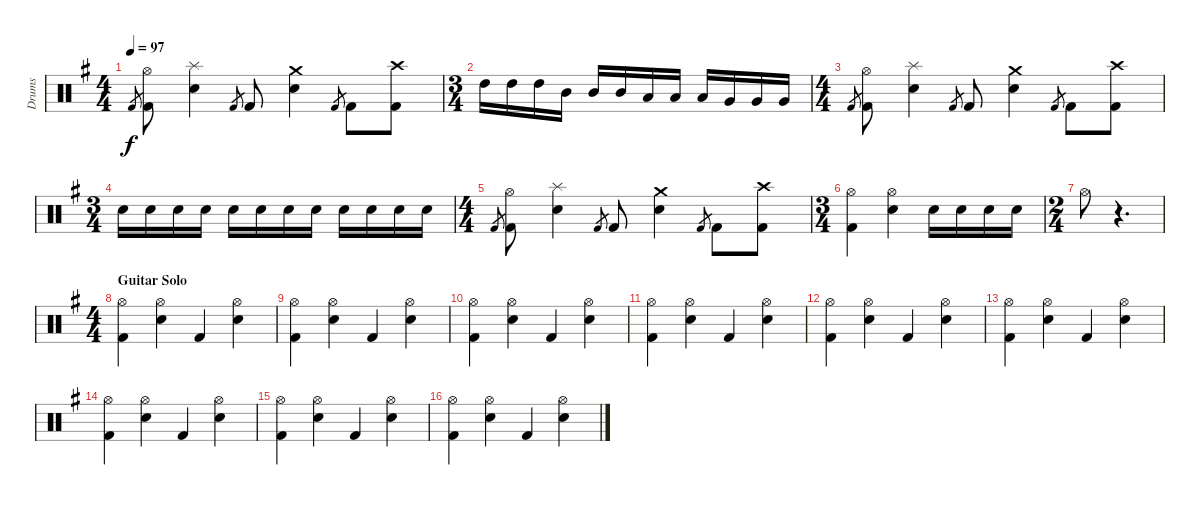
\track ("Drums" "Drums") {instrument percussion}
\staff {score}
\articulation defaults
\ts (4 4)
\tempo 97
\clef neutral
\ks g "Kick (hit) 2".8{gr dy f}
("Hi-Hat (open)" "Kick (hit) 2").8 ("Splash (hit)" "Snare (hit) 2").4 "Kick (hit) 2".8{gr} "Kick (hit) 2".8 ("Crash medium (hit)" "Snare (hit) 2").4 "Kick (hit) 2".8{gr} "Kick (hit) 2".8 ("Crash high (hit)" "Kick (hit) 2").8 |
\ts (3 4)
"High Tom (hit)".16 "High Tom (hit)".16 "High Tom (hit)".16 "Mid Tom (hit)".16 "Mid Tom (hit)".16 "Mid Tom (hit)".16 "Low Tom (hit)".16 "Low Tom (hit)".16 "Low Tom (hit)".16 "Very Low Tom (hit)".16 "Very Low Tom (hit)".16 "Very Low Tom (hit)".16 |
\ts (4 4)
"Kick (hit) 2".8{gr} ("Hi-Hat (open)" "Kick (hit) 2").8 ("Splash (hit)" "Snare (hit) 2").4 "Kick (hit) 2".8{gr} "Kick (hit) 2".8 ("Crash medium (hit)" "Snare (hit) 2").4 "Kick (hit) 2".8{gr} "Kick (hit) 2".8 ("Crash high (hit)" "Kick (hit) 2").8 |
\ts (3 4)
"Snare (hit) 2".16 "Snare (hit) 2".16 "Snare (hit) 2".16 "Snare (hit) 2".16 "Snare (hit) 2".16 "Snare (hit) 2".16 "Snare (hit) 2".16 "Snare (hit) 2".16 "Snare (hit) 2".16 "Snare (hit) 2".16 "Snare (hit) 2".16 "Snare (hit) 2".16 |
\ts (4 4)
"Kick (hit) 2".8{gr} ("Hi-Hat (open)" "Kick (hit) 2").8 ("Splash (hit)" "Snare (hit) 2").4 "Kick (hit) 2".8{gr} "Kick (hit) 2".8 ("Crash medium (hit)" "Snare (hit) 2").4 "Kick (hit) 2".8{gr} "Kick (hit) 2".8 ("Crash high (hit)" "Kick (hit) 2").8 |
\ts (3 4)
("Hi-Hat (open)" "Kick (hit) 2").4 ("Hi-Hat (open)" "Snare (hit) 2").4 "Snare (hit) 2".16 "Snare (hit) 2".16 "Snare (hit) 2".16 "Snare (hit) 2".16 |
\ts (2 4)
"Hi-Hat (open)".8 r.4{d} |
\ts (4 4)
\section ("" "Guitar Solo")
("Hi-Hat (open)" "Kick (hit) 2").4 ("Hi-Hat (open)" "Snare (hit) 2").4 "Kick (hit) 2".4 ("Hi-Hat (open)" "Snare (hit) 2").4 |
("Hi-Hat (open)" "Kick (hit) 2").4 ("Hi-Hat (open)" "Snare (hit) 2").4 "Kick (hit) 2".4 ("Hi-Hat (open)" "Snare (hit) 2").4 |
("Hi-Hat (open)" "Kick (hit) 2").4 ("Hi-Hat (open)" "Snare (hit) 2").4 "Kick (hit) 2".4 ("Hi-Hat (open)" "Snare (hit) 2").4 |
("Hi-Hat (open)" "Kick (hit) 2").4 ("Hi-Hat (open)" "Snare (hit) 2").4 "Kick (hit) 2".4 ("Hi-Hat (open)" "Snare (hit) 2").4 |
("Hi-Hat (open)" "Kick (hit) 2").4 ("Hi-Hat (open)" "Snare (hit) 2").4 "Kick (hit) 2".4 ("Hi-Hat (open)" "Snare (hit) 2").4 |
("Hi-Hat (open)" "Kick (hit) 2").4 ("Hi-Hat (open)" "Snare (hit) 2").4 "Kick (hit) 2".4 ("Hi-Hat (open)" "Snare (hit) 2").4 |
("Hi-Hat (open)" "Kick (hit) 2").4 ("Hi-Hat (open)" "Snare (hit) 2").4 "Kick (hit) 2".4 ("Hi-Hat (open)" "Snare (hit) 2").4 |
("Hi-Hat (open)" "Kick (hit) 2").4 ("Hi-Hat (open)" "Snare (hit) 2").4 "Kick (hit) 2".4 ("Hi-Hat (open)" "Snare (hit) 2").4 |
("Hi-Hat (open)" "Kick (hit) 2").4 ("Hi-Hat (open)" "Snare (hit) 2").4 "Kick (hit) 2".4 ("Hi-Hat (open)" "Snare (hit) 2").4
